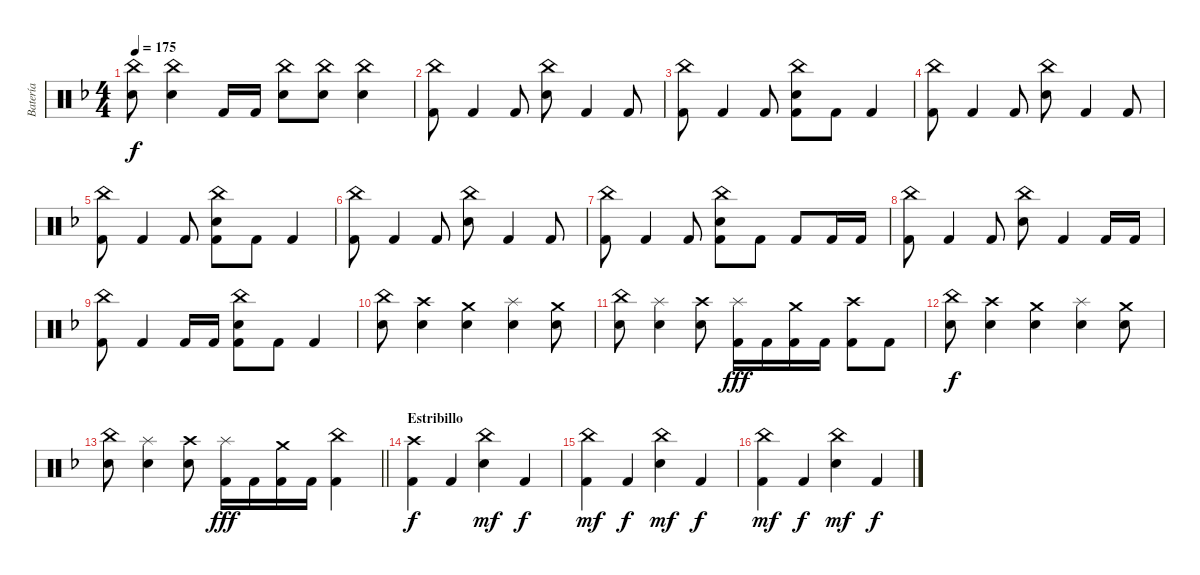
\track ("Batería" "Batería") {instrument percussion}
\staff {score}
\articulation defaults
\ts (4 4)
\tempo 175
\clef neutral
\ks dminor
("China (hit)" "Snare (hit) 2").8{dy f} ("China (hit)" "Snare (hit) 2").4 "Kick (hit) 2".16 "Kick (hit) 2".16 ("China (hit)" "Snare (hit) 2").8 ("China (hit)" "Snare (hit) 2").8 ("China (hit)" "Snare (hit) 2").4 |
("China (hit)" "Kick (hit) 2").8 "Kick (hit) 2".4 "Kick (hit) 2".8 ("China (hit)" "Snare (hit) 2").8 "Kick (hit) 2".4 "Kick (hit) 2".8 |
("China (hit)" "Kick (hit) 2").8 "Kick (hit) 2".4 "Kick (hit) 2".8 ("China (hit)" "Snare (hit) 2" "Kick (hit) 2").8 "Kick (hit) 2".8 "Kick (hit) 2".4 |
("China (hit)" "Kick (hit) 2").8 "Kick (hit) 2".4 "Kick (hit) 2".8 ("China (hit)" "Snare (hit) 2").8 "Kick (hit) 2".4 "Kick (hit) 2".8 |
("China (hit)" "Kick (hit) 2").8 "Kick (hit) 2".4 "Kick (hit) 2".8 ("China (hit)" "Snare (hit) 2" "Kick (hit) 2").8 "Kick (hit) 2".8 "Kick (hit) 2".4 |
("China (hit)" "Kick (hit) 2").8 "Kick (hit) 2".4 "Kick (hit) 2".8 ("China (hit)" "Snare (hit) 2").8 "Kick (hit) 2".4 "Kick (hit) 2".8 |
("China (hit)" "Kick (hit) 2").8 "Kick (hit) 2".4 "Kick (hit) 2".8 ("China (hit)" "Snare (hit) 2" "Kick (hit) 2").8 "Kick (hit) 2".8 "Kick (hit) 2".8 "Kick (hit) 2".16 "Kick (hit) 2".16 |
("China (hit)" "Kick (hit) 2").8 "Kick (hit) 2".4 "Kick (hit) 2".8 ("China (hit)" "Snare (hit) 2").8 "Kick (hit) 2".4 "Kick (hit) 2".16 "Kick (hit) 2".16 |
("China (hit)" "Kick (hit) 2").8 "Kick (hit) 2".4 "Kick (hit) 2".16 "Kick (hit) 2".16 ("China (hit)" "Snare (hit) 2" "Kick (hit) 2").8 "Kick (hit) 2".8 "Kick (hit) 2".4 |
("China (hit)" "Snare (hit) 2").8 ("Crash high (hit)" "Snare (hit) 2").4 ("Crash medium (hit)" "Snare (hit) 2").4 ("Splash (hit)" "Snare (hit) 2").4 ("Crash medium (hit)" "Snare (hit) 2").8 |
("China (hit)" "Snare (hit) 2").8 ("Splash (hit)" "Snare (hit) 2").4 ("Crash high (hit)" "Snare (hit) 2").8 ("Splash (hit)" "Kick (hit) 2").16{dy fff} "Kick (hit) 2".16 ("Crash medium (hit)" "Kick (hit) 2").16 "Kick (hit) 2".16 ("Crash high (hit)" "Kick (hit) 2").8 "Kick (hit) 2".8 |
("China (hit)" "Snare (hit) 2").8{dy f} ("Crash high (hit)" "Snare (hit) 2").4 ("Crash medium (hit)" "Snare (hit) 2").4 ("Splash (hit)" "Snare (hit) 2").4 ("Crash medium (hit)" "Snare (hit) 2").8 |
\barLineRight lightlight
("China (hit)" "Snare (hit) 2").8 ("Splash (hit)" "Snare (hit) 2").4 ("Crash high (hit)" "Snare (hit) 2").8 ("Splash (hit)" "Kick (hit) 2").16{dy fff} "Kick (hit) 2".16 ("Crash medium (hit)" "Kick (hit) 2").16 "Kick (hit) 2".16 ("China (hit)" "Kick (hit) 2").4 |
\section ("" "Estribillo")
("Crash high (hit)" "Kick (hit) 2").4{dy f} "Kick (hit) 2".4 ("China (hit)" "Snare (hit) 2").4{dy mf} "Kick (hit) 2".4{dy f} |
("China (hit)" "Kick (hit) 2").4{dy mf} "Kick (hit) 2".4{dy f} ("China (hit)" "Snare (hit) 2").4{dy mf} "Kick (hit) 2".4{dy f} |
("China (hit)" "Kick (hit) 2").4{dy mf} "Kick (hit) 2".4{dy f} ("China (hit)" "Snare (hit) 2").4{dy mf} "Kick (hit) 2".4{dy f}
